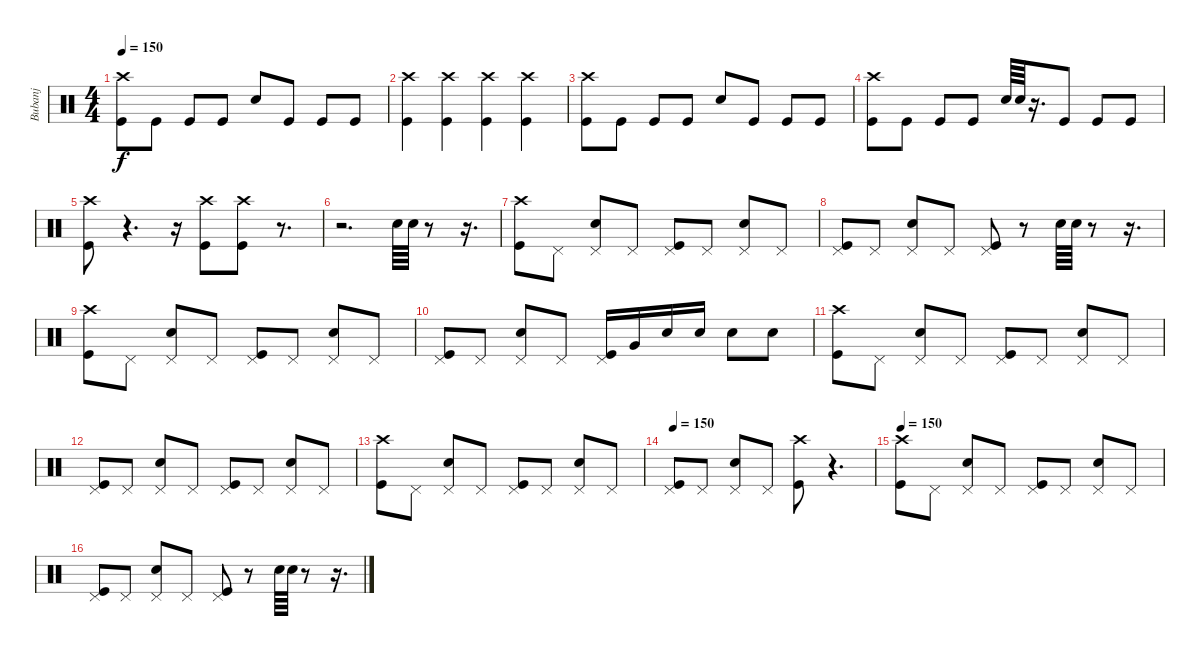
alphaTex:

\track ("Bubanj" "Bubanj") {instrument percussion}
\staff {score}
\articulation defaults
\ts (4 4)
\tempo 150
\clef neutral
\ks c
("Crash high (hit)" "Kick (hit)").8{dy f} "Kick (hit)".8 "Kick (hit)".8 "Kick (hit)".8 "Electric Snare (hit)".8 "Kick (hit)".8 "Kick (hit)".8 "Kick (hit)".8 |
("Crash high (hit)" "Kick (hit)").4 ("Crash high (hit)" "Kick (hit)").4 ("Crash high (hit)" "Kick (hit)").4 ("Crash high (hit)" "Kick (hit)").4 |
("Crash high (hit)" "Kick (hit)").8 "Kick (hit)".8 "Kick (hit)".8 "Kick (hit)".8 "Electric Snare (hit)".8 "Kick (hit)".8 "Kick (hit)".8 "Kick (hit)".8 |
("Crash high (hit)" "Kick (hit)").8 "Kick (hit)".8 "Kick (hit)".8 "Kick (hit)".8 "Electric Snare (hit)".64 "Electric Snare (hit)".64 r.16{d} "Kick (hit)".8 "Kick (hit)".8 "Kick (hit)".8 |
("Crash high (hit)" "Kick (hit)").8 r.4{d} r.16 ("Crash high (hit)" "Kick (hit)").8 ("Crash high (hit)" "Kick (hit)").8 r.8{d} |
r.2{d} "Electric Snare (hit)".64 "Electric Snare (hit)".64 r.8 r.16{d} |
("Crash high (hit)" "Kick (hit)").8 "Pedal Hi-Hat (hit)".8 ("Pedal Hi-Hat (hit)" "Electric Snare (hit)").8 "Pedal Hi-Hat (hit)".8 ("Pedal Hi-Hat (hit)" "Kick (hit)").8 "Pedal Hi-Hat (hit)".8 ("Pedal Hi-Hat (hit)" "Electric Snare (hit)").8 "Pedal Hi-Hat (hit)".8 |
("Pedal Hi-Hat (hit)" "Kick (hit)").8 "Pedal Hi-Hat (hit)".8 ("Pedal Hi-Hat (hit)" "Electric Snare (hit)").8 "Pedal Hi-Hat (hit)".8 ("Pedal Hi-Hat (hit)" "Kick (hit)").8 r.8 "Electric Snare (hit)".64 "Electric Snare (hit)".64 r.8 r.16{d} |
("Crash high (hit)" "Kick (hit)").8 "Pedal Hi-Hat (hit)".8 ("Pedal Hi-Hat (hit)" "Electric Snare (hit)").8 "Pedal Hi-Hat (hit)".8 ("Pedal Hi-Hat (hit)" "Kick (hit)").8 "Pedal Hi-Hat (hit)".8 ("Pedal Hi-Hat (hit)" "Electric Snare (hit)").8 "Pedal Hi-Hat (hit)".8 |
("Pedal Hi-Hat (hit)" "Kick (hit)").8 "Pedal Hi-Hat (hit)".8 ("Pedal Hi-Hat (hit)" "Electric Snare (hit)").8 "Pedal Hi-Hat (hit)".8 ("Pedal Hi-Hat (hit)" "Kick (hit)").16 "Very Low Tom (hit)".16 "Electric Snare (hit)".16 "Electric Snare (hit)".16 "Electric Snare (hit)".8 "Electric Snare (hit)".8 |
("Crash high (hit)" "Kick (hit)").8 "Pedal Hi-Hat (hit)".8 ("Pedal Hi-Hat (hit)" "Electric Snare (hit)").8 "Pedal Hi-Hat (hit)".8 ("Pedal Hi-Hat (hit)" "Kick (hit)").8 "Pedal Hi-Hat (hit)".8 ("Pedal Hi-Hat (hit)" "Electric Snare (hit)").8 "Pedal Hi-Hat (hit)".8 |
("Pedal Hi-Hat (hit)" "Kick (hit)").8 "Pedal Hi-Hat (hit)".8 ("Pedal Hi-Hat (hit)" "Electric Snare (hit)").8 "Pedal Hi-Hat (hit)".8 ("Pedal Hi-Hat (hit)" "Kick (hit)").8 "Pedal Hi-Hat (hit)".8 ("Pedal Hi-Hat (hit)" "Electric Snare (hit)").8 "Pedal Hi-Hat (hit)".8 |
("Crash high (hit)" "Kick (hit)").8 "Pedal Hi-Hat (hit)".8 ("Pedal Hi-Hat (hit)" "Electric Snare (hit)").8 "Pedal Hi-Hat (hit)".8 ("Pedal Hi-Hat (hit)" "Kick (hit)").8 "Pedal Hi-Hat (hit)".8 ("Pedal Hi-Hat (hit)" "Electric Snare (hit)").8 "Pedal Hi-Hat (hit)".8 |
\tempo 150
("Pedal Hi-Hat (hit)" "Kick (hit)").8 "Pedal Hi-Hat (hit)".8 ("Pedal Hi-Hat (hit)" "Electric Snare (hit)").8 "Pedal Hi-Hat (hit)".8 ("Crash high (hit)" "Kick (hit)").8 r.4{d} |
\tempo 150
("Crash high (hit)" "Kick (hit)").8 "Pedal Hi-Hat (hit)".8 ("Pedal Hi-Hat (hit)" "Electric Snare (hit)").8 "Pedal Hi-Hat (hit)".8 ("Pedal Hi-Hat (hit)" "Kick (hit)").8 "Pedal Hi-Hat (hit)".8 ("Pedal Hi-Hat (hit)" "Electric Snare (hit)").8 "Pedal Hi-Hat (hit)".8 |
("Pedal Hi-Hat (hit)" "Kick (hit)").8 "Pedal Hi-Hat (hit)".8 ("Pedal Hi-Hat (hit)" "Electric Snare (hit)").8 "Pedal Hi-Hat (hit)".8 ("Pedal Hi-Hat (hit)" "Kick (hit)").8 r.8 "Electric Snare (hit)".64 "Electric Snare (hit)".64 r.8 r.16{d}
